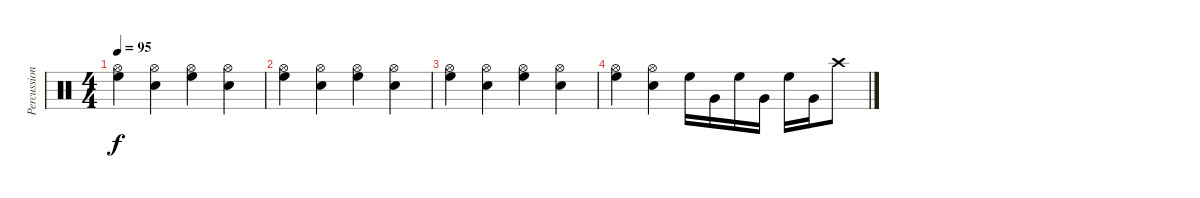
\track ("Percussion" "Percussion") {instrument percussion}
\staff {score}
\articulation defaults
\ts (4 4)
\tempo 95
\clef neutral
\ks c
("High Floor Tom (hit)" "Hi-Hat (open)").4{dy f} ("Snare (hit) 2" "Hi-Hat (open)").4 ("High Floor Tom (hit)" "Hi-Hat (open)").4 ("Snare (hit) 2" "Hi-Hat (open)").4 |
("High Floor Tom (hit)" "Hi-Hat (open)").4 ("Snare (hit) 2" "Hi-Hat (open)").4 ("High Floor Tom (hit)" "Hi-Hat (open)").4 ("Snare (hit) 2" "Hi-Hat (open)").4 |
("High Floor Tom (hit)" "Hi-Hat (open)").4 ("Snare (hit) 2" "Hi-Hat (open)").4 ("High Floor Tom (hit)" "Hi-Hat (open)").4 ("Snare (hit) 2" "Hi-Hat (open)").4 |
("High Floor Tom (hit)" "Hi-Hat (open)").4 ("Snare (hit) 2" "Hi-Hat (open)").4 "High Floor Tom (hit)".16 "Very Low Tom (hit)".16 "High Floor Tom (hit)".16 "Very Low Tom (hit)".16 "High Floor Tom (hit)".16 "Very Low Tom (hit)".16 "Crash high (hit)".8
